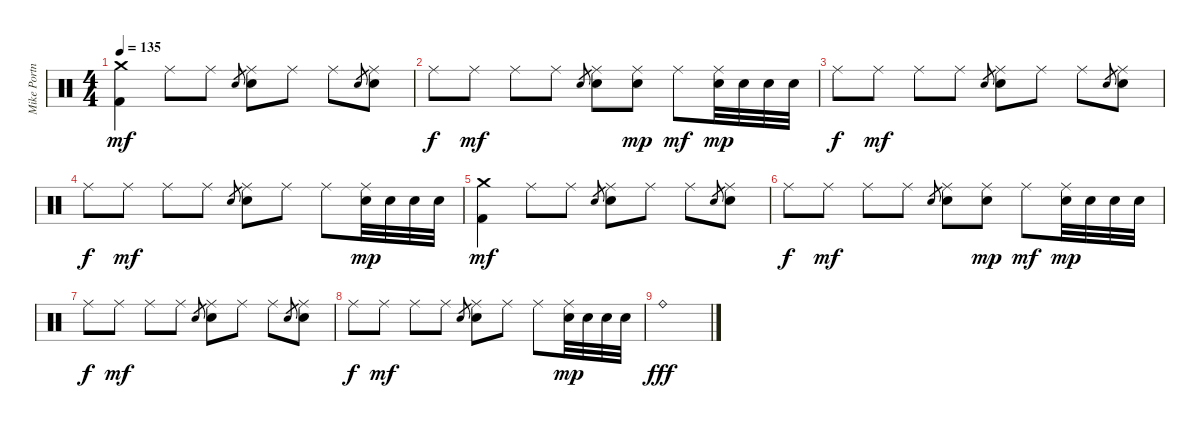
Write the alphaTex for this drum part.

\track ("Mike Portnoy" "Mike Portn") {instrument percussion}
\staff {score}
\articulation defaults
\ts (4 4)
\tempo 135
\clef neutral
\ks c
("Crash medium (hit)" "Kick (hit) 2").4{dy mf} "Ride (middle)".8 "Ride (middle)".8 "Electric Snare (hit)".8{gr} ("Ride (middle)" "Electric Snare (hit)").8 "Ride (middle)".8 "Ride (middle)".8 "Electric Snare (hit)".8{gr} ("Ride (middle)" "Electric Snare (hit)").8 |
"Ride (middle)".8{dy f} "Ride (middle)".8{dy mf} "Ride (middle)".8 "Ride (middle)".8 "Electric Snare (hit)".8{gr} ("Ride (middle)" "Electric Snare (hit)").8 ("Ride (middle)" "Electric Snare (hit)").8{dy mp} "Ride (middle)".8{dy mf} ("Ride (middle)" "Electric Snare (hit)").32{dy mp} "Electric Snare (hit)".32 "Electric Snare (hit)".32 "Electric Snare (hit)".32 |
"Ride (middle)".8{dy f} "Ride (middle)".8{dy mf} "Ride (middle)".8 "Ride (middle)".8 "Electric Snare (hit)".8{gr} ("Ride (middle)" "Electric Snare (hit)").8 "Ride (middle)".8 "Ride (middle)".8 "Electric Snare (hit)".8{gr} ("Ride (middle)" "Electric Snare (hit)").8 |
"Ride (middle)".8{dy f} "Ride (middle)".8{dy mf} "Ride (middle)".8 "Ride (middle)".8 "Electric Snare (hit)".8{gr} ("Ride (middle)" "Electric Snare (hit)").8 "Ride (middle)".8 "Ride (middle)".8 ("Ride (middle)" "Electric Snare (hit)").32{dy mp} "Electric Snare (hit)".32 "Electric Snare (hit)".32 "Electric Snare (hit)".32 |
("Crash medium (hit)" "Kick (hit) 2").4{dy mf} "Ride (middle)".8 "Ride (middle)".8 "Electric Snare (hit)".8{gr} ("Ride (middle)" "Electric Snare (hit)").8 "Ride (middle)".8 "Ride (middle)".8 "Electric Snare (hit)".8{gr} ("Ride (middle)" "Electric Snare (hit)").8 |
"Ride (middle)".8{dy f} "Ride (middle)".8{dy mf} "Ride (middle)".8 "Ride (middle)".8 "Electric Snare (hit)".8{gr} ("Ride (middle)" "Electric Snare (hit)").8 ("Ride (middle)" "Electric Snare (hit)").8{dy mp} "Ride (middle)".8{dy mf} ("Ride (middle)" "Electric Snare (hit)").32{dy mp} "Electric Snare (hit)".32 "Electric Snare (hit)".32 "Electric Snare (hit)".32 |
"Ride (middle)".8{dy f} "Ride (middle)".8{dy mf} "Ride (middle)".8 "Ride (middle)".8 "Electric Snare (hit)".8{gr} ("Ride (middle)" "Electric Snare (hit)").8 "Ride (middle)".8 "Ride (middle)".8 "Electric Snare (hit)".8{gr} ("Ride (middle)" "Electric Snare (hit)").8 |
"Ride (middle)".8{dy f} "Ride (middle)".8{dy mf} "Ride (middle)".8 "Ride (middle)".8 "Electric Snare (hit)".8{gr} ("Ride (middle)" "Electric Snare (hit)").8 "Ride (middle)".8 "Ride (middle)".8 ("Ride (middle)" "Electric Snare (hit)").32{dy mp} "Electric Snare (hit)".32 "Electric Snare (hit)".32 "Electric Snare (hit)".32 |
"Ride (bell)".1{dy fff}
